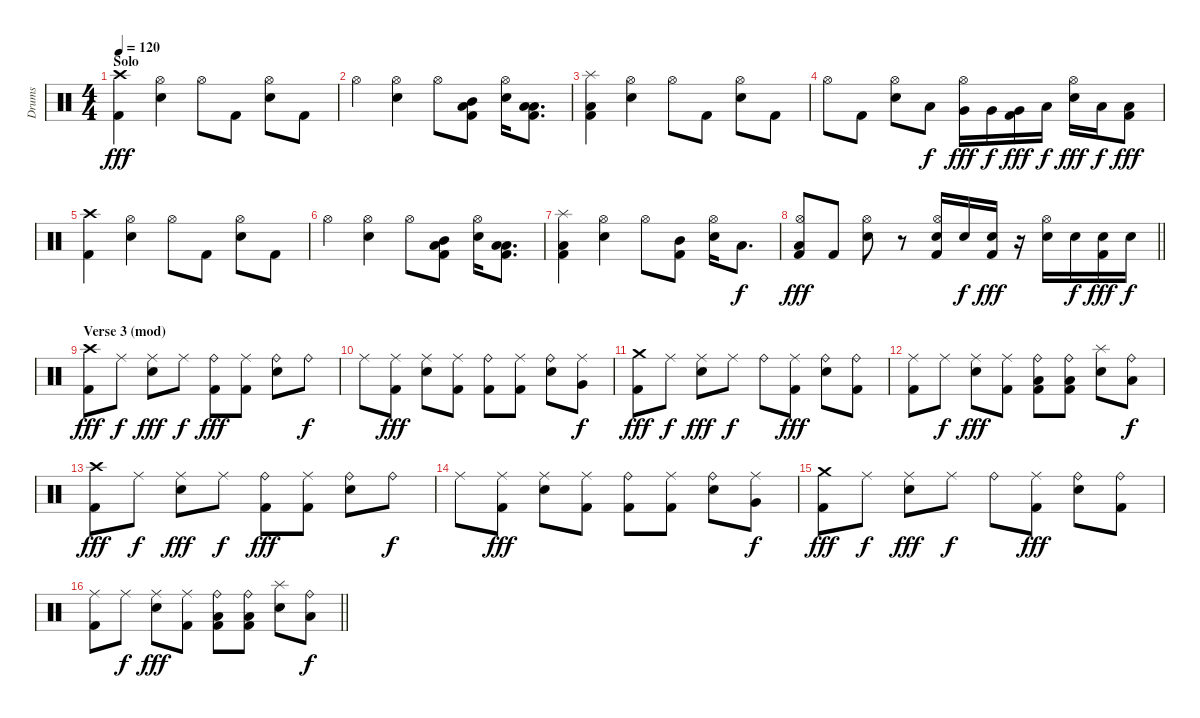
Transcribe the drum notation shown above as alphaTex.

\track ("Drums" "Drums") {instrument percussion}
\staff {score}
\articulation defaults
\ts (4 4)
\section ("" "Solo")
\tempo 120
\clef neutral
\ks c
("Crash high (hit)" "Kick (hit) 2").4{dy fff} ("Hi-Hat (open)" "Snare (hit) 2").4 "Hi-Hat (open)".8 "Kick (hit) 2".8 ("Hi-Hat (open)" "Snare (hit) 2").8 "Kick (hit) 2".8 |
"Hi-Hat (open)".4 ("Hi-Hat (open)" "Snare (hit) 2").4 "Hi-Hat (open)".8 ("Mid Tom (hit)" "Low Floor Tom (hit)" "Kick (hit) 2").8 ("Hi-Hat (open)" "Snare (hit) 2").16 ("Low Tom (hit)" "Low Floor Tom (hit)" "Kick (hit) 2").8{d} |
("Splash (hit)" "Low Floor Tom (hit)" "Kick (hit) 2").4 ("Hi-Hat (open)" "Snare (hit) 2").4 "Hi-Hat (open)".8 "Kick (hit) 2".8 ("Hi-Hat (open)" "Snare (hit) 2").8 "Kick (hit) 2".8 |
"Hi-Hat (open)".8 "Kick (hit) 2".8 ("Hi-Hat (open)" "Snare (hit) 2").8 "Low Tom (hit)".8{dy f} ("Hi-Hat (open)" "Very Low Tom (hit)").16{dy fff} "Very Low Tom (hit)".16{dy f} ("Very Low Tom (hit)" "Kick (hit) 2").16{dy fff} "Low Floor Tom (hit)".16{dy f} ("Hi-Hat (open)" "Snare (hit) 2").16{dy fff} "Low Floor Tom (hit)".16{dy f} ("Low Floor Tom (hit)" "Kick (hit) 2").8{dy fff} |
("Crash high (hit)" "Kick (hit) 2").4 ("Hi-Hat (open)" "Snare (hit) 2").4 "Hi-Hat (open)".8 "Kick (hit) 2".8 ("Hi-Hat (open)" "Snare (hit) 2").8 "Kick (hit) 2".8 |
"Hi-Hat (open)".4 ("Hi-Hat (open)" "Snare (hit) 2").4 "Hi-Hat (open)".8 ("Mid Tom (hit)" "Low Floor Tom (hit)" "Kick (hit) 2").8 ("Hi-Hat (open)" "Snare (hit) 2").16 ("Low Tom (hit)" "Low Floor Tom (hit)" "Kick (hit) 2").8{d} |
("Splash (hit)" "Low Floor Tom (hit)" "Kick (hit) 2").4 ("Hi-Hat (open)" "Snare (hit) 2").4 "Hi-Hat (open)".8 ("Mid Tom (hit)" "Kick (hit) 2").8 ("Hi-Hat (open)" "Snare (hit) 2").16 "Low Tom (hit)".8{d dy f} |
\barLineRight lightlight
("Hi-Hat (open)" "Low Floor Tom (hit)" "Kick (hit) 2").8{dy fff} "Kick (hit) 2".8 ("Hi-Hat (open)" "Snare (hit) 2").8 r.8 ("Hi-Hat (open)" "Snare (hit) 2" "Kick (hit) 2").16 "Snare (hit) 2".16{dy f} ("Snare (hit) 2" "Kick (hit) 2").16{dy fff} r.16 ("Hi-Hat (open)" "Snare (hit) 2").16 "Snare (hit) 2".16{dy f} ("Snare (hit) 2" "Kick (hit) 2").16{dy fff} "Snare (hit) 2".16{dy f} |
\section ("" "Verse 3 (mod)")
("Crash high (hit)" "Kick (hit) 2").8{dy fff} "Ride (middle)".8{dy f} ("Ride (middle)" "Snare (hit) 2").8{dy fff} "Ride (middle)".8{dy f} ("Ride (bell)" "Kick (hit) 2").8{dy fff} ("Ride (middle)" "Kick (hit) 2").8 ("Ride (bell)" "Snare (hit) 2").8 "Ride (bell)".8{dy f} |
"Ride (middle)".8 ("Ride (middle)" "Kick (hit) 2").8{dy fff} ("Ride (middle)" "Snare (hit) 2").8 ("Ride (middle)" "Kick (hit) 2").8 ("Ride (bell)" "Kick (hit) 2").8 ("Ride (middle)" "Kick (hit) 2").8 ("Ride (bell)" "Snare (hit) 2").8 ("Ride (middle)" "Very Low Tom (hit)").8{dy f} |
("Crash medium (hit)" "Kick (hit) 2").8{dy fff} "Ride (middle)".8{dy f} ("Ride (middle)" "Snare (hit) 2").8{dy fff} "Ride (middle)".8{dy f} "Ride (bell)".8 ("Ride (middle)" "Kick (hit) 2").8{dy fff} ("Ride (bell)" "Snare (hit) 2").8 ("Ride (bell)" "Kick (hit) 2").8 |
("Ride (middle)" "Kick (hit) 2").8 "Ride (middle)".8{dy f} ("Ride (middle)" "Snare (hit) 2").8{dy fff} ("Ride (middle)" "Kick (hit) 2").8 ("Ride (bell)" "Low Floor Tom (hit)" "Kick (hit) 2").8 ("Ride (bell)" "Low Floor Tom (hit)" "Kick (hit) 2").8 ("Splash (hit)" "Snare (hit) 2").8 ("Ride (bell)" "Low Floor Tom (hit)").8{dy f} |
("Crash high (hit)" "Kick (hit) 2").8{dy fff} "Ride (middle)".8{dy f} ("Ride (middle)" "Snare (hit) 2").8{dy fff} "Ride (middle)".8{dy f} ("Ride (bell)" "Kick (hit) 2").8{dy fff} ("Ride (middle)" "Kick (hit) 2").8 ("Ride (bell)" "Snare (hit) 2").8 "Ride (bell)".8{dy f} |
"Ride (middle)".8 ("Ride (middle)" "Kick (hit) 2").8{dy fff} ("Ride (middle)" "Snare (hit) 2").8 ("Ride (middle)" "Kick (hit) 2").8 ("Ride (bell)" "Kick (hit) 2").8 ("Ride (middle)" "Kick (hit) 2").8 ("Ride (bell)" "Snare (hit) 2").8 ("Ride (middle)" "Very Low Tom (hit)").8{dy f} |
("Crash medium (hit)" "Kick (hit) 2").8{dy fff} "Ride (middle)".8{dy f} ("Ride (middle)" "Snare (hit) 2").8{dy fff} "Ride (middle)".8{dy f} "Ride (bell)".8 ("Ride (middle)" "Kick (hit) 2").8{dy fff} ("Ride (bell)" "Snare (hit) 2").8 ("Ride (bell)" "Kick (hit) 2").8 |
\barLineRight lightlight
("Ride (middle)" "Kick (hit) 2").8 "Ride (middle)".8{dy f} ("Ride (middle)" "Snare (hit) 2").8{dy fff} ("Ride (middle)" "Kick (hit) 2").8 ("Ride (bell)" "Low Floor Tom (hit)" "Kick (hit) 2").8 ("Ride (bell)" "Low Floor Tom (hit)" "Kick (hit) 2").8 ("Splash (hit)" "Snare (hit) 2").8 ("Ride (bell)" "Low Floor Tom (hit)").8{dy f}
